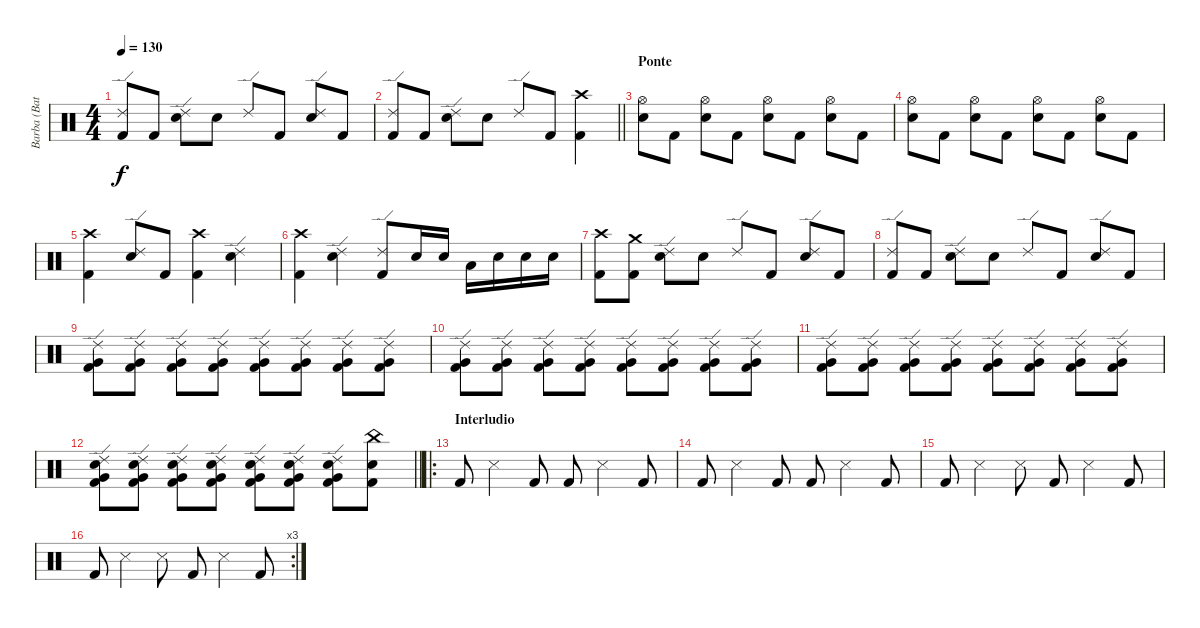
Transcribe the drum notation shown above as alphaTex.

\track ("Barba (Bateria)" "Barba (Bat") {instrument percussion}
\staff {score}
\articulation defaults
\ts (4 4)
\tempo 130
\clef neutral
\ks c
("Ride (edge) 2" "Kick (hit) 2").8{dy f} "Kick (hit) 2".8 ("Ride (edge) 2" "Electric Snare (hit)").8 "Electric Snare (hit)".8 "Ride (edge) 2".8 "Kick (hit) 2".8 ("Ride (edge) 2" "Electric Snare (hit)").8 "Kick (hit) 2".8 |
\barLineRight lightlight
("Ride (edge) 2" "Kick (hit) 2").8 "Kick (hit) 2".8 ("Ride (edge) 2" "Electric Snare (hit)").8 "Electric Snare (hit)".8 "Ride (edge) 2".8 "Kick (hit) 2".8 ("Crash high (hit)" "Kick (hit) 2").4 |
\section ("" "Ponte")
("Hi-Hat (open)" "Electric Snare (hit)").8 "Kick (hit) 2".8 ("Hi-Hat (open)" "Electric Snare (hit)").8 "Kick (hit) 2".8 ("Hi-Hat (open)" "Electric Snare (hit)").8 "Kick (hit) 2".8 ("Hi-Hat (open)" "Electric Snare (hit)").8 "Kick (hit) 2".8 |
("Hi-Hat (open)" "Electric Snare (hit)").8 "Kick (hit) 2".8 ("Hi-Hat (open)" "Electric Snare (hit)").8 "Kick (hit) 2".8 ("Hi-Hat (open)" "Electric Snare (hit)").8 "Kick (hit) 2".8 ("Hi-Hat (open)" "Electric Snare (hit)").8 "Kick (hit) 2".8 |
("Crash high (hit)" "Kick (hit) 2").4 ("Ride (edge) 2" "Electric Snare (hit)").8 "Kick (hit) 2".8 ("Crash high (hit)" "Kick (hit) 2").4 ("Ride (edge) 2" "Electric Snare (hit)").4 |
("Crash high (hit)" "Kick (hit) 2").4 ("Ride (edge) 2" "Electric Snare (hit)").4 ("Ride (edge) 2" "Kick (hit) 2").8 "Electric Snare (hit)".16 "Electric Snare (hit)".16 "Low Tom (hit)".16 "Electric Snare (hit)".16 "Electric Snare (hit)".16 "Electric Snare (hit)".16 |
("Crash high (hit)" "Kick (hit) 2").8 ("Crash medium (hit)" "Kick (hit) 2").8 ("Ride (edge) 2" "Electric Snare (hit)").8 "Electric Snare (hit)".8 "Ride (edge) 2".8 "Kick (hit) 2".8 ("Ride (edge) 2" "Electric Snare (hit)").8 "Kick (hit) 2".8 |
("Ride (edge) 2" "Kick (hit) 2").8 "Kick (hit) 2".8 ("Ride (edge) 2" "Electric Snare (hit)").8 "Electric Snare (hit)".8 "Ride (edge) 2".8 "Kick (hit) 2".8 ("Ride (edge) 2" "Electric Snare (hit)").8 "Kick (hit) 2".8 |
("Ride (edge) 2" "Very Low Tom (hit)" "Kick (hit) 2").8{volume 7} ("Ride (edge) 2" "Very Low Tom (hit)" "Kick (hit) 2").8 ("Ride (edge) 2" "Very Low Tom (hit)" "Kick (hit) 2").8 ("Ride (edge) 2" "Very Low Tom (hit)" "Kick (hit) 2").8 ("Ride (edge) 2" "Very Low Tom (hit)" "Kick (hit) 2").8 ("Ride (edge) 2" "Very Low Tom (hit)" "Kick (hit) 2").8 ("Ride (edge) 2" "Very Low Tom (hit)" "Kick (hit) 2").8 ("Ride (edge) 2" "Very Low Tom (hit)" "Kick (hit) 2").8 |
("Ride (edge) 2" "Very Low Tom (hit)" "Kick (hit) 2").8{volume 10} ("Ride (edge) 2" "Very Low Tom (hit)" "Kick (hit) 2").8 ("Ride (edge) 2" "Very Low Tom (hit)" "Kick (hit) 2").8 ("Ride (edge) 2" "Very Low Tom (hit)" "Kick (hit) 2").8 ("Ride (edge) 2" "Very Low Tom (hit)" "Kick (hit) 2").8 ("Ride (edge) 2" "Very Low Tom (hit)" "Kick (hit) 2").8 ("Ride (edge) 2" "Very Low Tom (hit)" "Kick (hit) 2").8 ("Ride (edge) 2" "Very Low Tom (hit)" "Kick (hit) 2").8 |
("Ride (edge) 2" "Very Low Tom (hit)" "Kick (hit) 2").8{volume 12} ("Ride (edge) 2" "Very Low Tom (hit)" "Kick (hit) 2").8 ("Ride (edge) 2" "Very Low Tom (hit)" "Kick (hit) 2").8 ("Ride (edge) 2" "Very Low Tom (hit)" "Kick (hit) 2").8 ("Ride (edge) 2" "Very Low Tom (hit)" "Kick (hit) 2").8 ("Ride (edge) 2" "Very Low Tom (hit)" "Kick (hit) 2").8 ("Ride (edge) 2" "Very Low Tom (hit)" "Kick (hit) 2").8 ("Ride (edge) 2" "Very Low Tom (hit)" "Kick (hit) 2").8 |
\barLineRight lightlight
("Ride (edge) 2" "Electric Snare (hit)" "Very Low Tom (hit)" "Kick (hit) 2").8{volume 14} ("Ride (edge) 2" "Electric Snare (hit)" "Very Low Tom (hit)" "Kick (hit) 2").8 ("Ride (edge) 2" "Electric Snare (hit)" "Very Low Tom (hit)" "Kick (hit) 2").8 ("Ride (edge) 2" "Electric Snare (hit)" "Very Low Tom (hit)" "Kick (hit) 2").8 ("Ride (edge) 2" "Electric Snare (hit)" "Very Low Tom (hit)" "Kick (hit) 2").8{volume 16} ("Ride (edge) 2" "Electric Snare (hit)" "Very Low Tom (hit)" "Kick (hit) 2").8 ("Ride (edge) 2" "Electric Snare (hit)" "Very Low Tom (hit)" "Kick (hit) 2").8 ("China (hit)" "Electric Snare (hit)" "Kick (hit) 2").8 |
\ro
\section ("" "Interludio")
"Kick (hit) 2".8 "Snare (side stick) 3".4 "Kick (hit) 2".8 "Kick (hit) 2".8 "Snare (side stick) 3".4 "Kick (hit) 2".8 |
"Kick (hit) 2".8 "Snare (side stick) 3".4 "Kick (hit) 2".8 "Kick (hit) 2".8 "Snare (side stick) 3".4 "Kick (hit) 2".8 |
"Kick (hit) 2".8 "Snare (side stick) 3".4 "Snare (side stick) 3".8 "Kick (hit) 2".8 "Snare (side stick) 3".4 "Kick (hit) 2".8 |
\rc 3 "Kick (hit) 2".8 "Snare (side stick) 3".4 "Snare (side stick) 3".8 "Kick (hit) 2".8 "Snare (side stick) 3".4 "Kick (hit) 2".8
